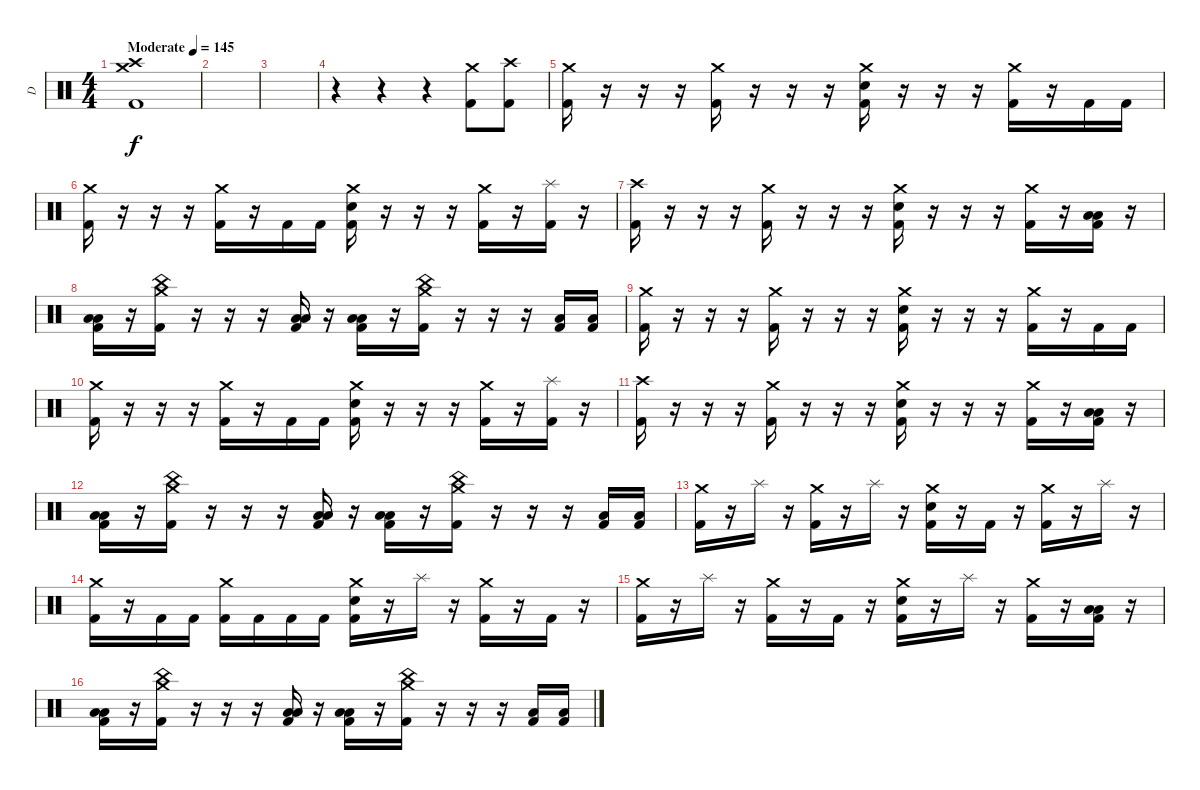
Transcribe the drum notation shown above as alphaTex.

\track ("D" "D") {instrument percussion}
\staff {score}
\articulation defaults
\ts (4 4)
\tempo (145 "Moderate")
\clef neutral
\ks c
("Crash medium (hit)" "Crash high (hit)" "Kick (hit) 2").1{dy f} |
|
|
r.4 r.4 r.4 ("Crash medium (hit)" "Kick (hit) 2").8 ("Crash high (hit)" "Kick (hit) 2").8 |
("Crash medium (hit)" "Kick (hit) 2").16 r.16 r.16 r.16 ("Crash medium (hit)" "Kick (hit) 2").16 r.16 r.16 r.16 ("Crash medium (hit)" "Electric Snare (hit)" "Kick (hit) 2").16 r.16 r.16 r.16 ("Crash medium (hit)" "Kick (hit) 2").16 r.16 "Kick (hit) 2".16 "Kick (hit) 2".16 |
("Crash medium (hit)" "Kick (hit) 2").16 r.16 r.16 r.16 ("Crash medium (hit)" "Kick (hit) 2").16 r.16 "Kick (hit) 2".16 "Kick (hit) 2".16 ("Crash medium (hit)" "Electric Snare (hit)" "Kick (hit) 2").16 r.16 r.16 r.16 ("Crash medium (hit)" "Kick (hit) 2").16 r.16 ("Splash (hit)" "Kick (hit) 2").16 r.16 |
("Crash high (hit)" "Kick (hit) 2").16 r.16 r.16 r.16 ("Crash medium (hit)" "Kick (hit) 2").16 r.16 r.16 r.16 ("Crash medium (hit)" "Electric Snare (hit)" "Kick (hit) 2").16 r.16 r.16 r.16 ("Crash medium (hit)" "Kick (hit) 2").16 r.16 ("Low Floor Tom (hit)" "Low Tom (hit)" "Kick (hit) 2").16 r.16 |
("Low Floor Tom (hit)" "Low Tom (hit)" "Kick (hit) 2").16 r.16 ("Crash medium (hit)" "China (hit)" "Kick (hit) 2").16 r.16 r.16 r.16 ("Low Floor Tom (hit)" "Low Tom (hit)" "Kick (hit) 2").16 r.16 ("Low Floor Tom (hit)" "Low Tom (hit)" "Kick (hit) 2").16 r.16 ("Crash medium (hit)" "China (hit)" "Kick (hit) 2").16 r.16 r.16 r.16 ("Low Tom (hit)" "Kick (hit) 2").16 ("Low Floor Tom (hit)" "Kick (hit) 2").16 |
("Crash medium (hit)" "Kick (hit) 2").16 r.16 r.16 r.16 ("Crash medium (hit)" "Kick (hit) 2").16 r.16 r.16 r.16 ("Crash medium (hit)" "Electric Snare (hit)" "Kick (hit) 2").16 r.16 r.16 r.16 ("Crash medium (hit)" "Kick (hit) 2").16 r.16 "Kick (hit) 2".16 "Kick (hit) 2".16 |
("Crash medium (hit)" "Kick (hit) 2").16 r.16 r.16 r.16 ("Crash medium (hit)" "Kick (hit) 2").16 r.16 "Kick (hit) 2".16 "Kick (hit) 2".16 ("Crash medium (hit)" "Electric Snare (hit)" "Kick (hit) 2").16 r.16 r.16 r.16 ("Crash medium (hit)" "Kick (hit) 2").16 r.16 ("Splash (hit)" "Kick (hit) 2").16 r.16 |
("Crash high (hit)" "Kick (hit) 2").16 r.16 r.16 r.16 ("Crash medium (hit)" "Kick (hit) 2").16 r.16 r.16 r.16 ("Crash medium (hit)" "Electric Snare (hit)" "Kick (hit) 2").16 r.16 r.16 r.16 ("Crash medium (hit)" "Kick (hit) 2").16 r.16 ("Low Floor Tom (hit)" "Low Tom (hit)" "Kick (hit) 2").16 r.16 |
("Low Floor Tom (hit)" "Low Tom (hit)" "Kick (hit) 2").16 r.16 ("Crash medium (hit)" "China (hit)" "Kick (hit) 2").16 r.16 r.16 r.16 ("Low Floor Tom (hit)" "Low Tom (hit)" "Kick (hit) 2").16 r.16 ("Low Floor Tom (hit)" "Low Tom (hit)" "Kick (hit) 2").16 r.16 ("Crash medium (hit)" "China (hit)" "Kick (hit) 2").16 r.16 r.16 r.16 ("Low Tom (hit)" "Kick (hit) 2").16 ("Low Floor Tom (hit)" "Kick (hit) 2").16 |
("Crash medium (hit)" "Kick (hit) 2").16 r.16 "Splash (hit)".16 r.16 ("Crash medium (hit)" "Kick (hit) 2").16 r.16 "Splash (hit)".16 r.16 ("Crash medium (hit)" "Electric Snare (hit)" "Kick (hit) 2").16 r.16 "Kick (hit) 2".16 r.16 ("Crash medium (hit)" "Kick (hit) 2").16 r.16 "Splash (hit)".16 r.16 |
("Crash medium (hit)" "Kick (hit) 2").16 r.16 "Kick (hit) 2".16 "Kick (hit) 2".16 ("Crash medium (hit)" "Kick (hit) 2").16 "Kick (hit) 2".16 "Kick (hit) 2".16 "Kick (hit) 2".16 ("Crash medium (hit)" "Electric Snare (hit)" "Kick (hit) 2").16 r.16 "Splash (hit)".16 r.16 ("Crash medium (hit)" "Kick (hit) 2").16 r.16 "Kick (hit) 2".16 r.16 |
("Crash medium (hit)" "Kick (hit) 2").16 r.16 "Splash (hit)".16 r.16 ("Crash medium (hit)" "Kick (hit) 2").16 r.16 "Kick (hit) 2".16 r.16 ("Crash medium (hit)" "Electric Snare (hit)" "Kick (hit) 2").16 r.16 "Splash (hit)".16 r.16 ("Crash medium (hit)" "Kick (hit) 2").16 r.16 ("Low Floor Tom (hit)" "Low Tom (hit)" "Kick (hit) 2").16 r.16 |
("Low Floor Tom (hit)" "Low Tom (hit)" "Kick (hit) 2").16 r.16 ("Crash medium (hit)" "China (hit)" "Kick (hit) 2").16 r.16 r.16 r.16 ("Low Floor Tom (hit)" "Low Tom (hit)" "Kick (hit) 2").16 r.16 ("Low Floor Tom (hit)" "Low Tom (hit)" "Kick (hit) 2").16 r.16 ("Crash medium (hit)" "China (hit)" "Kick (hit) 2").16 r.16 r.16 r.16 ("Low Tom (hit)" "Kick (hit) 2").16 ("Low Floor Tom (hit)" "Kick (hit) 2").16
